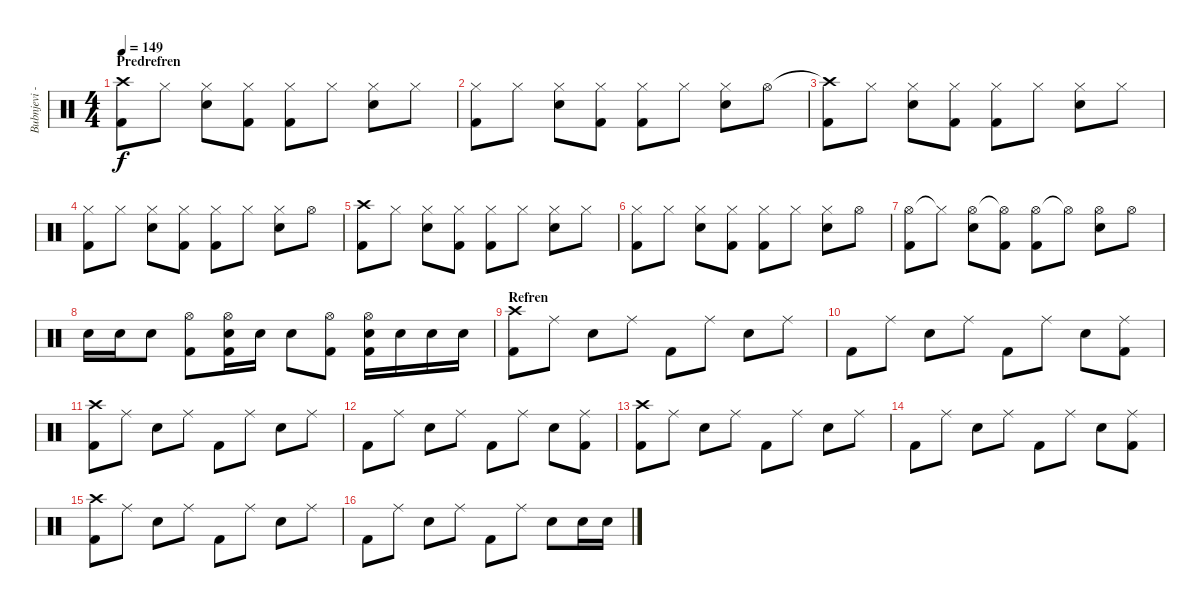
\track ("Bubnjevi - Vladan Cvetkovic" "Bubnjevi -") {instrument percussion}
\staff {score}
\articulation defaults
\ts (4 4)
\section ("" "Predrefren")
\tempo 149
\clef neutral
\ks c
("Crash high (hit)" "Kick (hit) 2").8{dy f} "Hi-Hat (closed)".8 ("Hi-Hat (closed)" "Electric Snare (hit)").8 ("Hi-Hat (closed)" "Kick (hit) 2").8 ("Hi-Hat (closed)" "Kick (hit) 2").8 "Hi-Hat (closed)".8 ("Hi-Hat (closed)" "Electric Snare (hit)").8 "Hi-Hat (closed)".8 |
("Hi-Hat (closed)" "Kick (hit) 2").8 "Hi-Hat (closed)".8 ("Hi-Hat (closed)" "Electric Snare (hit)").8 ("Hi-Hat (closed)" "Kick (hit) 2").8 ("Hi-Hat (closed)" "Kick (hit) 2").8 "Hi-Hat (closed)".8 ("Hi-Hat (closed)" "Electric Snare (hit)").8 "Hi-Hat (open)".8 |
("Crash high (hit)"{t} "Kick (hit) 2").8 "Hi-Hat (closed)".8 ("Hi-Hat (closed)" "Electric Snare (hit)").8 ("Hi-Hat (closed)" "Kick (hit) 2").8 ("Hi-Hat (closed)" "Kick (hit) 2").8 "Hi-Hat (closed)".8 ("Hi-Hat (closed)" "Electric Snare (hit)").8 "Hi-Hat (closed)".8 |
("Hi-Hat (closed)" "Kick (hit) 2").8 "Hi-Hat (closed)".8 ("Hi-Hat (closed)" "Electric Snare (hit)").8 ("Hi-Hat (closed)" "Kick (hit) 2").8 ("Hi-Hat (closed)" "Kick (hit) 2").8 "Hi-Hat (closed)".8 ("Hi-Hat (closed)" "Electric Snare (hit)").8 "Hi-Hat (open)".8 |
("Crash high (hit)" "Kick (hit) 2").8 "Hi-Hat (closed)".8 ("Hi-Hat (closed)" "Electric Snare (hit)").8 ("Hi-Hat (closed)" "Kick (hit) 2").8 ("Hi-Hat (closed)" "Kick (hit) 2").8 "Hi-Hat (closed)".8 ("Hi-Hat (closed)" "Electric Snare (hit)").8 "Hi-Hat (closed)".8 |
("Hi-Hat (closed)" "Kick (hit) 2").8 "Hi-Hat (closed)".8 ("Hi-Hat (closed)" "Electric Snare (hit)").8 ("Hi-Hat (closed)" "Kick (hit) 2").8 ("Hi-Hat (closed)" "Kick (hit) 2").8 "Hi-Hat (closed)".8 ("Hi-Hat (closed)" "Electric Snare (hit)").8 "Hi-Hat (open)".8 |
("Hi-Hat (open)" "Kick (hit) 2").8 "Hi-Hat (closed)"{t}.8 ("Hi-Hat (open)" "Electric Snare (hit)").8 ("Hi-Hat (open)"{t} "Kick (hit) 2").8 ("Hi-Hat (open)" "Kick (hit) 2").8 "Hi-Hat (open)"{t}.8 ("Hi-Hat (open)" "Electric Snare (hit)").8 "Hi-Hat (open)".8 |
"Electric Snare (hit)".16 "Electric Snare (hit)".16 "Electric Snare (hit)".8 ("Kick (hit) 2" "Hi-Hat (open)").8 ("Electric Snare (hit)" "Kick (hit) 2" "Hi-Hat (open)").16 "Electric Snare (hit)".16 "Electric Snare (hit)".8 ("Kick (hit) 2" "Hi-Hat (open)").8 ("Electric Snare (hit)" "Kick (hit) 2" "Hi-Hat (open)").16 "Electric Snare (hit)".16 "Electric Snare (hit)".16 "Electric Snare (hit)".16 |
\section ("" "Refren")
("Crash high (hit)" "Kick (hit) 2").8 "Ride (middle)".8 "Electric Snare (hit)".8 "Ride (middle)".8 "Kick (hit) 2".8 "Ride (middle)".8 "Electric Snare (hit)".8 "Ride (middle)".8 |
"Kick (hit) 2".8 "Ride (middle)".8 "Electric Snare (hit)".8 "Ride (middle)".8 "Kick (hit) 2".8 "Ride (middle)".8 "Electric Snare (hit)".8 ("Ride (middle)" "Kick (hit) 2").8 |
("Crash high (hit)" "Kick (hit) 2").8 "Ride (middle)".8 "Electric Snare (hit)".8 "Ride (middle)".8 "Kick (hit) 2".8 "Ride (middle)".8 "Electric Snare (hit)".8 "Ride (middle)".8 |
"Kick (hit) 2".8 "Ride (middle)".8 "Electric Snare (hit)".8 "Ride (middle)".8 "Kick (hit) 2".8 "Ride (middle)".8 "Electric Snare (hit)".8 ("Ride (middle)" "Kick (hit) 2").8 |
("Crash high (hit)" "Kick (hit) 2").8 "Ride (middle)".8 "Electric Snare (hit)".8 "Ride (middle)".8 "Kick (hit) 2".8 "Ride (middle)".8 "Electric Snare (hit)".8 "Ride (middle)".8 |
"Kick (hit) 2".8 "Ride (middle)".8 "Electric Snare (hit)".8 "Ride (middle)".8 "Kick (hit) 2".8 "Ride (middle)".8 "Electric Snare (hit)".8 ("Ride (middle)" "Kick (hit) 2").8 |
("Crash high (hit)" "Kick (hit) 2").8 "Ride (middle)".8 "Electric Snare (hit)".8 "Ride (middle)".8 "Kick (hit) 2".8 "Ride (middle)".8 "Electric Snare (hit)".8 "Ride (middle)".8 |
"Kick (hit) 2".8 "Ride (middle)".8 "Electric Snare (hit)".8 "Ride (middle)".8 "Kick (hit) 2".8 "Ride (middle)".8 "Electric Snare (hit)".8 "Electric Snare (hit)".16 "Electric Snare (hit)".16
